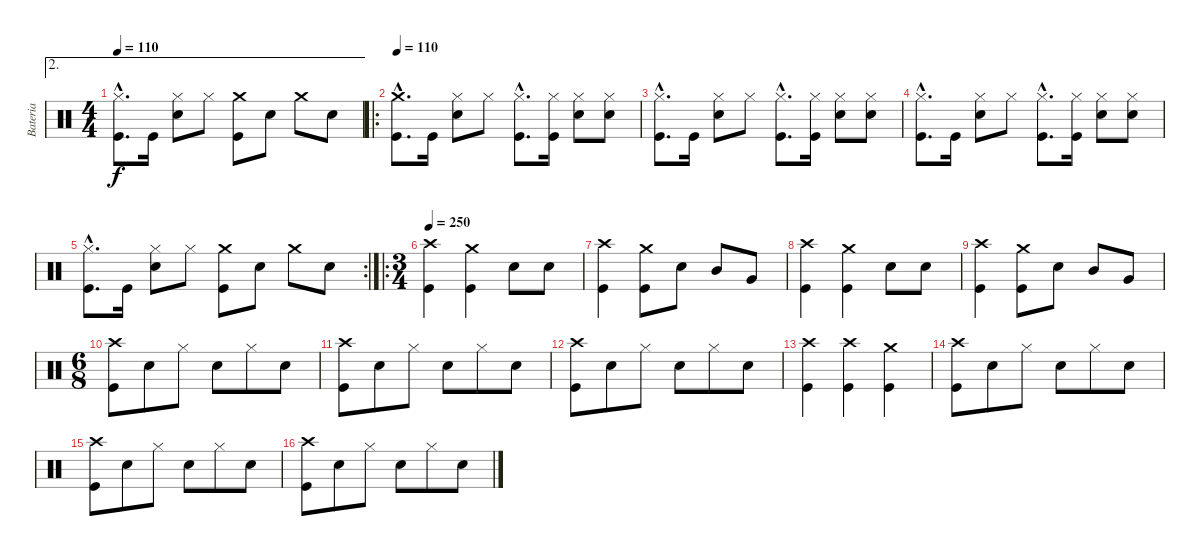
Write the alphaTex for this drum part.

\track ("Bateria" "Bateria") {instrument percussion}
\staff {score}
\articulation defaults
\ae 2
\ts (4 4)
\tempo 110
\clef neutral
\ks c
("Hi-Hat (closed)"{hac} "Kick (hit)"{hac}).8{d dy f} "Kick (hit)".16 ("Hi-Hat (closed)" "Snare (hit) 2").8 "Hi-Hat (closed)".8 ("Crash medium (hit)" "Kick (hit)").8 "Snare (hit) 2".8 "Crash medium (hit)".8 "Snare (hit) 2".8 |
\ro
\tempo 110
("Crash medium (hit)"{hac} "Kick (hit)"{hac}).8{d} "Kick (hit)".16 ("Hi-Hat (closed)" "Snare (hit) 2").8 "Hi-Hat (closed)".8 ("Hi-Hat (closed)"{hac} "Kick (hit)"{hac}).8{d} ("Hi-Hat (closed)" "Kick (hit)").16 ("Hi-Hat (closed)" "Snare (hit) 2").8 ("Hi-Hat (closed)" "Snare (hit) 2").8 |
("Hi-Hat (closed)"{hac} "Kick (hit)"{hac}).8{d} "Kick (hit)".16 ("Hi-Hat (closed)" "Snare (hit) 2").8 "Hi-Hat (closed)".8 ("Hi-Hat (closed)"{hac} "Kick (hit)"{hac}).8{d} ("Hi-Hat (closed)" "Kick (hit)").16 ("Hi-Hat (closed)" "Snare (hit) 2").8 ("Hi-Hat (closed)" "Snare (hit) 2").8 |
("Hi-Hat (closed)"{hac} "Kick (hit)"{hac}).8{d} "Kick (hit)".16 ("Hi-Hat (closed)" "Snare (hit) 2").8 "Hi-Hat (closed)".8 ("Hi-Hat (closed)"{hac} "Kick (hit)"{hac}).8{d} ("Hi-Hat (closed)" "Kick (hit)").16 ("Hi-Hat (closed)" "Snare (hit) 2").8 ("Hi-Hat (closed)" "Snare (hit) 2").8 |
\rc 2
("Hi-Hat (closed)"{hac} "Kick (hit)"{hac}).8{d} "Kick (hit)".16 ("Hi-Hat (closed)" "Snare (hit) 2").8 "Hi-Hat (closed)".8 ("Crash medium (hit)" "Kick (hit)").8 "Snare (hit) 2".8 "Crash medium (hit)".8 "Snare (hit) 2".8 |
\ro
\ts (3 4)
\tempo 250
("Crash high (hit)" "Kick (hit)").4 ("Crash medium (hit)" "Kick (hit)").4 "Snare (hit) 2".8 "Snare (hit) 2".8 |
("Crash high (hit)" "Kick (hit)").4 ("Crash medium (hit)" "Kick (hit)").8 "Snare (hit) 2".8 "Mid Tom (hit)".8 "Very Low Tom (hit)".8 |
("Crash high (hit)" "Kick (hit)").4 ("Crash medium (hit)" "Kick (hit)").4 "Snare (hit) 2".8 "Snare (hit) 2".8 |
("Crash high (hit)" "Kick (hit)").4 ("Crash medium (hit)" "Kick (hit)").8 "Snare (hit) 2".8 "Mid Tom (hit)".8 "Very Low Tom (hit)".8 |
\ts (6 8)
("Crash high (hit)" "Kick (hit)").8 "Snare (hit) 2".8 "Hi-Hat (closed)".8 "Snare (hit) 2".8 "Hi-Hat (closed)".8 "Snare (hit) 2".8 |
("Crash high (hit)" "Kick (hit)").8 "Snare (hit) 2".8 "Hi-Hat (closed)".8 "Snare (hit) 2".8 "Hi-Hat (closed)".8 "Snare (hit) 2".8 |
("Crash high (hit)" "Kick (hit)").8 "Snare (hit) 2".8 "Hi-Hat (closed)".8 "Snare (hit) 2".8 "Hi-Hat (closed)".8 "Snare (hit) 2".8 |
("Crash high (hit)" "Kick (hit)").4 ("Crash high (hit)" "Kick (hit)").4 ("Crash medium (hit)" "Kick (hit)").4 |
("Crash high (hit)" "Kick (hit)").8 "Snare (hit) 2".8 "Hi-Hat (closed)".8 "Snare (hit) 2".8 "Hi-Hat (closed)".8 "Snare (hit) 2".8 |
("Crash high (hit)" "Kick (hit)").8 "Snare (hit) 2".8 "Hi-Hat (closed)".8 "Snare (hit) 2".8 "Hi-Hat (closed)".8 "Snare (hit) 2".8 |
("Crash high (hit)" "Kick (hit)").8 "Snare (hit) 2".8 "Hi-Hat (closed)".8 "Snare (hit) 2".8 "Hi-Hat (closed)".8 "Snare (hit) 2".8
